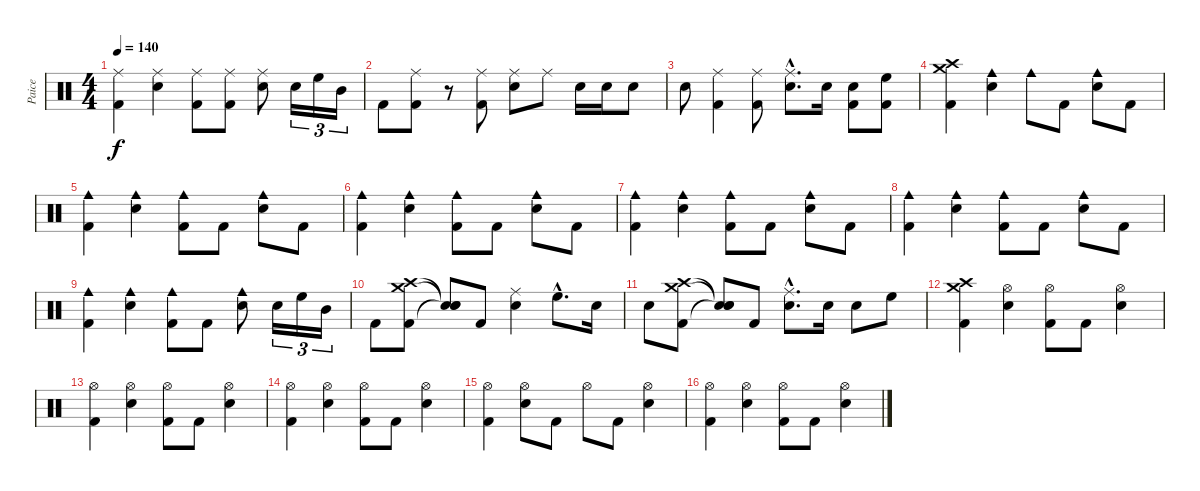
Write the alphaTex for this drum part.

\track ("Paice" "Paice") {instrument percussion}
\staff {score}
\articulation defaults
\ts (4 4)
\tempo 140
\clef neutral
\ks c
("Ride (middle)" "Kick (hit) 2").4{dy f} ("Ride (middle)" "Electric Snare (hit)").4 ("Ride (middle)" "Kick (hit) 2").8 ("Ride (middle)" "Kick (hit) 2").8 ("Ride (middle)" "Electric Snare (hit)").8 "Electric Snare (hit)".16{tu (3 2)} "High Floor Tom (hit)".16{tu (3 2)} "Mid Tom (hit)".16{tu (3 2)} |
"Kick (hit) 2".8 ("Ride (middle)" "Kick (hit) 2").8 r.8 ("Ride (middle)" "Kick (hit) 2").8 ("Ride (middle)" "Electric Snare (hit)").8 "Ride (middle)".8 "Electric Snare (hit)".16 "Electric Snare (hit)".16 "Electric Snare (hit)".8 |
"Electric Snare (hit)".8 ("Ride (middle)" "Kick (hit) 2").4 ("Ride (middle)" "Kick (hit) 2").8 ("Ride (middle)"{hac} "Electric Snare (hit)"{hac}).8{d} "Electric Snare (hit)".16 ("Electric Snare (hit)" "Kick (hit) 2").8 ("High Floor Tom (hit)" "Kick (hit) 2").8 |
("Crash high (hit)" "Crash medium (hit)" "Kick (hit) 2").4 ("Cowbell medium (hit)" "Electric Snare (hit)").4 "Cowbell medium (hit)".8 "Kick (hit) 2".8 ("Cowbell medium (hit)" "Electric Snare (hit)").8 "Kick (hit) 2".8 |
("Cowbell medium (hit)" "Kick (hit) 2").4 ("Cowbell medium (hit)" "Electric Snare (hit)").4 ("Cowbell medium (hit)" "Kick (hit) 2").8 "Kick (hit) 2".8 ("Cowbell medium (hit)" "Electric Snare (hit)").8 "Kick (hit) 2".8 |
("Cowbell medium (hit)" "Kick (hit) 2").4 ("Cowbell medium (hit)" "Electric Snare (hit)").4 ("Cowbell medium (hit)" "Kick (hit) 2").8 "Kick (hit) 2".8 ("Cowbell medium (hit)" "Electric Snare (hit)").8 "Kick (hit) 2".8 |
("Cowbell medium (hit)" "Kick (hit) 2").4 ("Cowbell medium (hit)" "Electric Snare (hit)").4 ("Cowbell medium (hit)" "Kick (hit) 2").8 "Kick (hit) 2".8 ("Cowbell medium (hit)" "Electric Snare (hit)").8 "Kick (hit) 2".8 |
("Cowbell medium (hit)" "Kick (hit) 2").4 ("Cowbell medium (hit)" "Electric Snare (hit)").4 ("Cowbell medium (hit)" "Kick (hit) 2").8 "Kick (hit) 2".8 ("Cowbell medium (hit)" "Electric Snare (hit)").8 "Kick (hit) 2".8 |
("Cowbell medium (hit)" "Kick (hit) 2").4 ("Cowbell medium (hit)" "Electric Snare (hit)").4 ("Cowbell medium (hit)" "Kick (hit) 2").8 "Kick (hit) 2".8 ("Cowbell medium (hit)" "Electric Snare (hit)").8 "Electric Snare (hit)".16{tu (3 2)} "High Floor Tom (hit)".16{tu (3 2)} "Mid Tom (hit)".16{tu (3 2)} |
"Kick (hit) 2".8 ("Crash high (hit)" "Crash medium (hit)" "Kick (hit) 2").8 ("Snare (hit)"{t} "Snare (hit)"{t} "Snare (hit)"{t}).8 "Kick (hit) 2".8 ("Ride (middle)" "Electric Snare (hit)").4 "High Floor Tom (hit)"{hac}.8{d} "Electric Snare (hit)".16 |
"Electric Snare (hit)".8 ("Crash high (hit)" "Crash medium (hit)" "Kick (hit) 2").8 ("Snare (hit)"{t} "Snare (hit)"{t} "Snare (hit)"{t}).8 "Kick (hit) 2".8 ("Ride (middle)"{hac} "Electric Snare (hit)"{hac}).8{d} "Electric Snare (hit)".16 "Electric Snare (hit)".8 "High Floor Tom (hit)".8 |
("Crash high (hit)" "Crash medium (hit)" "Kick (hit) 2").4 ("Hi-Hat (open)" "Electric Snare (hit)").4 ("Hi-Hat (open)" "Kick (hit) 2").8 "Kick (hit) 2".8 ("Hi-Hat (open)" "Electric Snare (hit)").4 |
("Hi-Hat (open)" "Kick (hit) 2").4 ("Hi-Hat (open)" "Electric Snare (hit)").4 ("Hi-Hat (open)" "Kick (hit) 2").8 "Kick (hit) 2".8 ("Hi-Hat (open)" "Electric Snare (hit)").4 |
("Hi-Hat (open)" "Kick (hit) 2").4 ("Hi-Hat (open)" "Electric Snare (hit)").4 ("Hi-Hat (open)" "Kick (hit) 2").8 "Kick (hit) 2".8 ("Hi-Hat (open)" "Electric Snare (hit)").4 |
("Hi-Hat (open)" "Kick (hit) 2").4 ("Hi-Hat (open)" "Electric Snare (hit)").8 "Kick (hit) 2".8 "Hi-Hat (open)".8 "Kick (hit) 2".8 ("Hi-Hat (open)" "Electric Snare (hit)").4 |
("Hi-Hat (open)" "Kick (hit) 2").4 ("Hi-Hat (open)" "Electric Snare (hit)").4 ("Hi-Hat (open)" "Kick (hit) 2").8 "Kick (hit) 2".8 ("Hi-Hat (open)" "Electric Snare (hit)").4
